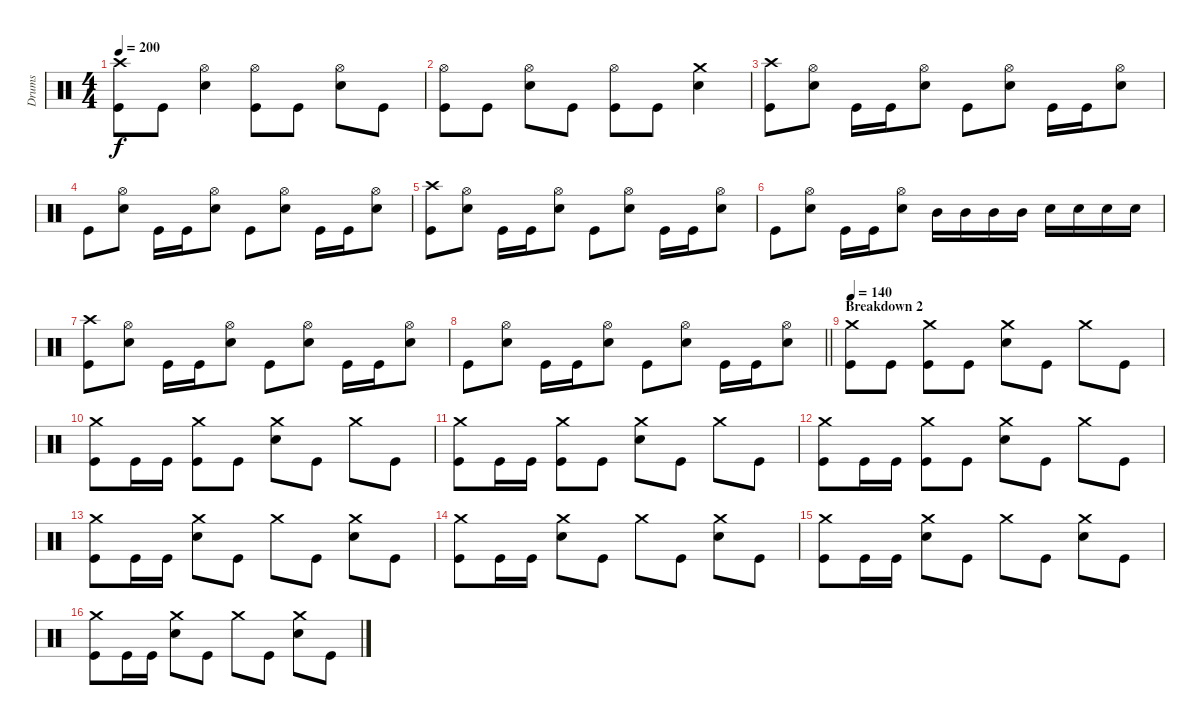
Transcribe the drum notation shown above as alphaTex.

\track ("Drums" "Drums") {instrument percussion}
\staff {score}
\articulation defaults
\ts (4 4)
\tempo 200
\clef neutral
\ks c
("Crash high (hit)" "Kick (hit)").8{dy f} "Kick (hit)".8 ("Hi-Hat (open)" "Snare (hit) 2").4 ("Hi-Hat (open)" "Kick (hit)").8 "Kick (hit)".8 ("Hi-Hat (open)" "Snare (hit) 2").8 "Kick (hit)".8 |
("Hi-Hat (open)" "Kick (hit)").8 "Kick (hit)".8 ("Hi-Hat (open)" "Snare (hit) 2").8 "Kick (hit)".8 ("Hi-Hat (open)" "Kick (hit)").8 "Kick (hit)".8 ("Crash medium (hit)" "Snare (hit) 2").4 |
("Crash high (hit)" "Kick (hit)").8 ("Hi-Hat (open)" "Snare (hit) 2").8 "Kick (hit)".16 "Kick (hit)".16 ("Hi-Hat (open)" "Snare (hit) 2").8 "Kick (hit)".8 ("Hi-Hat (open)" "Snare (hit) 2").8 "Kick (hit)".16 "Kick (hit)".16 ("Hi-Hat (open)" "Snare (hit) 2").8 |
"Kick (hit)".8 ("Hi-Hat (open)" "Snare (hit) 2").8 "Kick (hit)".16 "Kick (hit)".16 ("Hi-Hat (open)" "Snare (hit) 2").8 "Kick (hit)".8 ("Hi-Hat (open)" "Snare (hit) 2").8 "Kick (hit)".16 "Kick (hit)".16 ("Hi-Hat (open)" "Snare (hit) 2").8 |
("Crash high (hit)" "Kick (hit)").8 ("Hi-Hat (open)" "Snare (hit) 2").8 "Kick (hit)".16 "Kick (hit)".16 ("Hi-Hat (open)" "Snare (hit) 2").8 "Kick (hit)".8 ("Hi-Hat (open)" "Snare (hit) 2").8 "Kick (hit)".16 "Kick (hit)".16 ("Hi-Hat (open)" "Snare (hit) 2").8 |
"Kick (hit)".8 ("Hi-Hat (open)" "Snare (hit) 2").8 "Kick (hit)".16 "Kick (hit)".16 ("Hi-Hat (open)" "Snare (hit) 2").8 "Mid Tom (hit)".16 "Mid Tom (hit)".16 "Mid Tom (hit)".16 "Mid Tom (hit)".16 "Snare (hit) 2".16 "Snare (hit) 2".16 "Snare (hit) 2".16 "Snare (hit) 2".16 |
("Crash high (hit)" "Kick (hit)").8 ("Hi-Hat (open)" "Snare (hit) 2").8 "Kick (hit)".16 "Kick (hit)".16 ("Hi-Hat (open)" "Snare (hit) 2").8 "Kick (hit)".8 ("Hi-Hat (open)" "Snare (hit) 2").8 "Kick (hit)".16 "Kick (hit)".16 ("Hi-Hat (open)" "Snare (hit) 2").8 |
\barLineRight lightlight "Kick (hit)".8
("Hi-Hat (open)" "Snare (hit) 2").8 "Kick (hit)".16 "Kick (hit)".16 ("Hi-Hat (open)" "Snare (hit) 2").8 "Kick (hit)".8 ("Hi-Hat (open)" "Snare (hit) 2").8 "Kick (hit)".16 "Kick (hit)".16 ("Hi-Hat (open)" "Snare (hit) 2").8 |
\section ("" "Breakdown 2")
\tempo 140
("Crash medium (hit)" "Kick (hit)").8 "Kick (hit)".8 ("Crash medium (hit)" "Kick (hit)").8 "Kick (hit)".8 ("Crash medium (hit)" "Snare (hit) 2").8 "Kick (hit)".8 "Crash medium (hit)".8 "Kick (hit)".8 |
("Crash medium (hit)" "Kick (hit)").8 "Kick (hit)".16 "Kick (hit)".16 ("Crash medium (hit)" "Kick (hit)").8 "Kick (hit)".8 ("Crash medium (hit)" "Snare (hit) 2").8 "Kick (hit)".8 "Crash medium (hit)".8 "Kick (hit)".8 |
("Crash medium (hit)" "Kick (hit)").8 "Kick (hit)".16 "Kick (hit)".16 ("Crash medium (hit)" "Kick (hit)").8 "Kick (hit)".8 ("Crash medium (hit)" "Snare (hit) 2").8 "Kick (hit)".8 "Crash medium (hit)".8 "Kick (hit)".8 |
("Crash medium (hit)" "Kick (hit)").8 "Kick (hit)".16 "Kick (hit)".16 ("Crash medium (hit)" "Kick (hit)").8 "Kick (hit)".8 ("Crash medium (hit)" "Snare (hit) 2").8 "Kick (hit)".8 "Crash medium (hit)".8 "Kick (hit)".8 |
("Crash medium (hit)" "Kick (hit)").8 "Kick (hit)".16 "Kick (hit)".16 ("Crash medium (hit)" "Snare (hit) 2").8 "Kick (hit)".8 "Crash medium (hit)".8 "Kick (hit)".8 ("Crash medium (hit)" "Snare (hit) 2").8 "Kick (hit)".8 |
("Crash medium (hit)" "Kick (hit)").8 "Kick (hit)".16 "Kick (hit)".16 ("Crash medium (hit)" "Snare (hit) 2").8 "Kick (hit)".8 "Crash medium (hit)".8 "Kick (hit)".8 ("Crash medium (hit)" "Snare (hit) 2").8 "Kick (hit)".8 |
("Crash medium (hit)" "Kick (hit)").8 "Kick (hit)".16 "Kick (hit)".16 ("Crash medium (hit)" "Snare (hit) 2").8 "Kick (hit)".8 "Crash medium (hit)".8 "Kick (hit)".8 ("Crash medium (hit)" "Snare (hit) 2").8 "Kick (hit)".8 |
("Crash medium (hit)" "Kick (hit)").8 "Kick (hit)".16 "Kick (hit)".16 ("Crash medium (hit)" "Snare (hit) 2").8 "Kick (hit)".8 "Crash medium (hit)".8 "Kick (hit)".8 ("Crash medium (hit)" "Snare (hit) 2").8 "Kick (hit)".8
